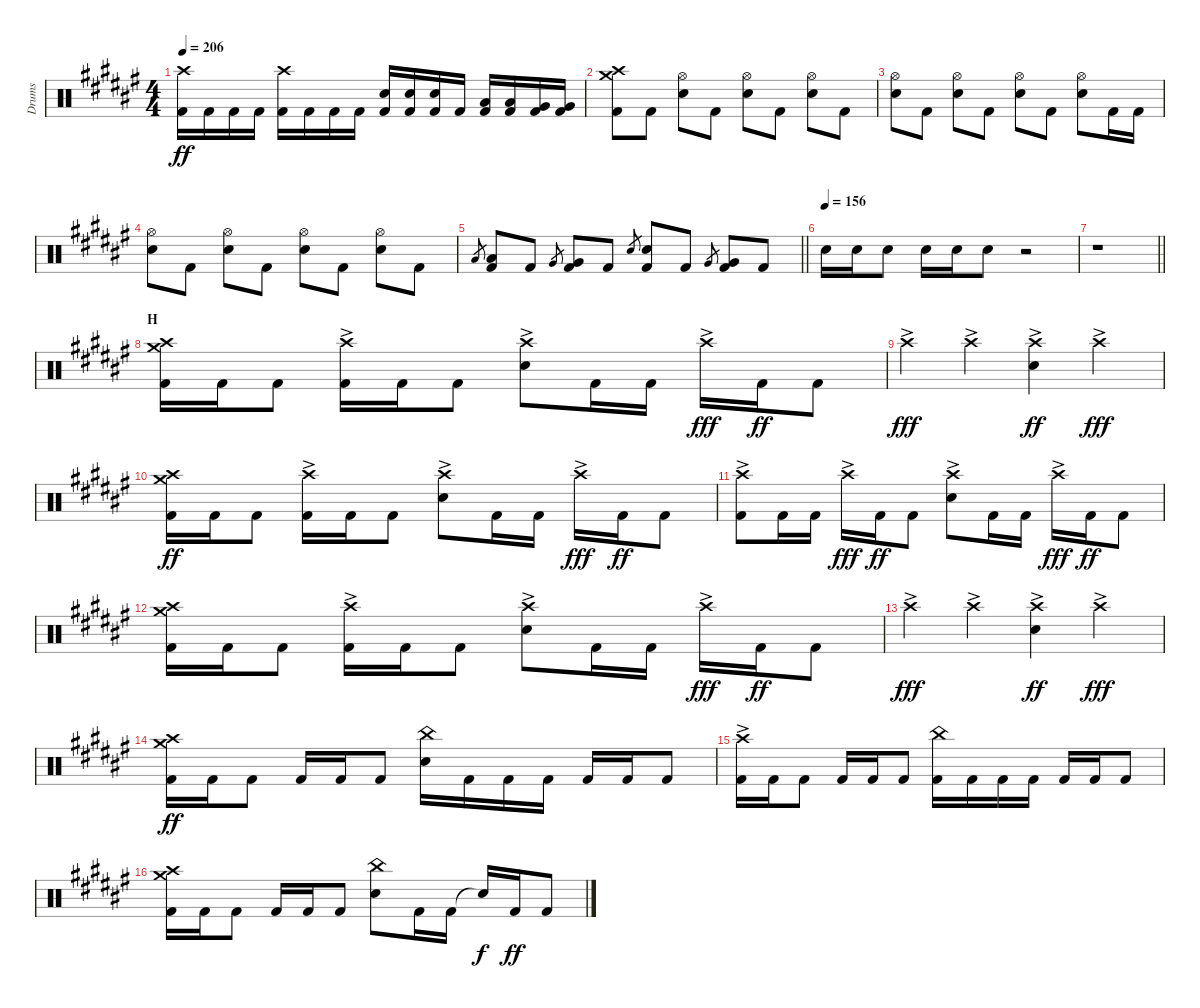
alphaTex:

\track ("Drums" "Drums") {instrument percussion}
\staff {score}
\articulation defaults
\ts (4 4)
\tempo 206
\clef neutral
\ks f#
("Crash high (hit)" "Kick (hit) 2").16{dy ff} "Kick (hit) 2".16 "Kick (hit) 2".16 "Kick (hit) 2".16 ("Crash high (hit)" "Kick (hit) 2").16 "Kick (hit) 2".16 "Kick (hit) 2".16 "Kick (hit) 2".16 ("Electric Snare (hit)" "Kick (hit) 2").16 ("Electric Snare (hit)" "Kick (hit) 2").16 ("Electric Snare (hit)" "Kick (hit) 2").16 "Kick (hit) 2".16 ("Low Tom (hit)" "Kick (hit) 2").16 ("Low Tom (hit)" "Kick (hit) 2").16 ("Very Low Tom (hit)" "Kick (hit) 2").16 ("Very Low Tom (hit)" "Kick (hit) 2").16 |
("Crash medium (hit)" "Crash high (hit)" "Kick (hit) 2").8 "Kick (hit) 2".8 ("Hi-Hat (open)" "Electric Snare (hit)").8 "Kick (hit) 2".8 ("Hi-Hat (open)" "Electric Snare (hit)").8 "Kick (hit) 2".8 ("Hi-Hat (open)" "Electric Snare (hit)").8 "Kick (hit) 2".8 |
("Hi-Hat (open)" "Electric Snare (hit)").8 "Kick (hit) 2".8 ("Hi-Hat (open)" "Electric Snare (hit)").8 "Kick (hit) 2".8 ("Hi-Hat (open)" "Electric Snare (hit)").8 "Kick (hit) 2".8 ("Hi-Hat (open)" "Electric Snare (hit)").8 "Kick (hit) 2".16 "Kick (hit) 2".16 |
("Hi-Hat (open)" "Electric Snare (hit)").8 "Kick (hit) 2".8 ("Hi-Hat (open)" "Electric Snare (hit)").8 "Kick (hit) 2".8 ("Hi-Hat (open)" "Electric Snare (hit)").8 "Kick (hit) 2".8 ("Hi-Hat (open)" "Electric Snare (hit)").8 "Kick (hit) 2".8 |
\barLineRight lightlight "Low Tom (hit)".8{gr}
("Low Tom (hit)" "Kick (hit) 2").8 "Kick (hit) 2".8 "Very Low Tom (hit)".8{gr} ("Very Low Tom (hit)" "Kick (hit) 2").8 "Kick (hit) 2".8 "Electric Snare (hit)".8{gr} ("Electric Snare (hit)" "Kick (hit) 2").8 "Kick (hit) 2".8 "Very Low Tom (hit)".8{gr} ("Very Low Tom (hit)" "Kick (hit) 2").8 "Kick (hit) 2".8 |
\section ("" "")
\tempo (156)
"Electric Snare (hit)".16 "Electric Snare (hit)".16 "Electric Snare (hit)".8 "Electric Snare (hit)".16 "Electric Snare (hit)".16 "Electric Snare (hit)".8 r.2 |
\barLineRight lightlight
r.1 |
\section ("" "H")
("Crash medium (hit)" "Crash high (hit)" "Kick (hit) 2").16 "Kick (hit) 2".16 "Kick (hit) 2".8 ("Crash high (hit)"{ac} "Kick (hit) 2").16 "Kick (hit) 2".16 "Kick (hit) 2".8 ("Crash high (hit)"{ac} "Electric Snare (hit)").8 "Kick (hit) 2".16 "Kick (hit) 2".16 "Crash high (hit)"{ac}.16{dy fff} "Kick (hit) 2".16{dy ff} "Kick (hit) 2".8 |
"Crash high (hit)"{ac}.4{dy fff} "Crash high (hit)"{ac}.4 ("Crash high (hit)"{ac} "Electric Snare (hit)").4{dy ff} "Crash high (hit)"{ac}.4{dy fff} |
("Crash medium (hit)" "Crash high (hit)" "Kick (hit) 2").16{dy ff} "Kick (hit) 2".16 "Kick (hit) 2".8 ("Crash high (hit)"{ac} "Kick (hit) 2").16 "Kick (hit) 2".16 "Kick (hit) 2".8 ("Crash high (hit)"{ac} "Electric Snare (hit)").8 "Kick (hit) 2".16 "Kick (hit) 2".16 "Crash high (hit)"{ac}.16{dy fff} "Kick (hit) 2".16{dy ff} "Kick (hit) 2".8 |
("Crash high (hit)"{ac} "Kick (hit) 2").8 "Kick (hit) 2".16 "Kick (hit) 2".16 "Crash high (hit)"{ac}.16{dy fff} "Kick (hit) 2".16{dy ff} "Kick (hit) 2".8 ("Crash high (hit)"{ac} "Electric Snare (hit)").8 "Kick (hit) 2".16 "Kick (hit) 2".16 "Crash high (hit)"{ac}.16{dy fff} "Kick (hit) 2".16{dy ff} "Kick (hit) 2".8 |
("Crash medium (hit)" "Crash high (hit)" "Kick (hit) 2").16 "Kick (hit) 2".16 "Kick (hit) 2".8 ("Crash high (hit)"{ac} "Kick (hit) 2").16 "Kick (hit) 2".16 "Kick (hit) 2".8 ("Crash high (hit)"{ac} "Electric Snare (hit)").8 "Kick (hit) 2".16 "Kick (hit) 2".16 "Crash high (hit)"{ac}.16{dy fff} "Kick (hit) 2".16{dy ff} "Kick (hit) 2".8 |
"Crash high (hit)"{ac}.4{dy fff} "Crash high (hit)"{ac}.4 ("Crash high (hit)"{ac} "Electric Snare (hit)").4{dy ff} "Crash high (hit)"{ac}.4{dy fff} |
("Crash medium (hit)" "Crash high (hit)" "Kick (hit) 2").16{dy ff} "Kick (hit) 2".16 "Kick (hit) 2".8 "Kick (hit) 2".16 "Kick (hit) 2".16 "Kick (hit) 2".8 ("China (hit)" "Electric Snare (hit)").16 "Kick (hit) 2".16 "Kick (hit) 2".16 "Kick (hit) 2".16 "Kick (hit) 2".16 "Kick (hit) 2".16 "Kick (hit) 2".8 |
("Crash high (hit)"{ac} "Kick (hit) 2").16 "Kick (hit) 2".16 "Kick (hit) 2".8 "Kick (hit) 2".16 "Kick (hit) 2".16 "Kick (hit) 2".8 ("China (hit)" "Kick (hit) 2").16 "Kick (hit) 2".16 "Kick (hit) 2".16 "Kick (hit) 2".16 "Kick (hit) 2".16 "Kick (hit) 2".16 "Kick (hit) 2".8 |
("Crash medium (hit)" "Crash high (hit)" "Kick (hit) 2").16 "Kick (hit) 2".16 "Kick (hit) 2".8 "Kick (hit) 2".16 "Kick (hit) 2".16 "Kick (hit) 2".8 ("China (hit)" "Electric Snare (hit)").8 "Kick (hit) 2".16 "Kick (hit) 2".16 "Snare (hit)"{t}.16{dy f} "Kick (hit) 2".16{dy ff} "Kick (hit) 2".8
